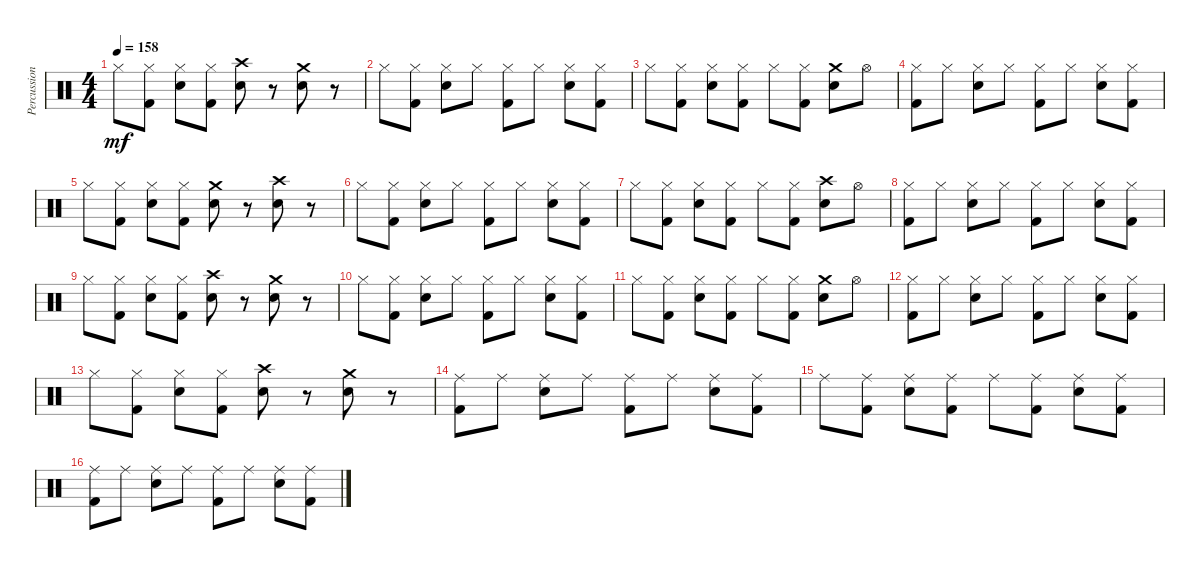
\track ("Percussions" "Percussion") {instrument percussion}
\staff {score}
\articulation defaults
\ts (4 4)
\tempo 158
\clef neutral
\ks c "Hi-Hat (closed)".8{dy mf}
("Hi-Hat (closed)" "Kick (hit) 2").8 ("Hi-Hat (closed)" "Electric Snare (hit)").8 ("Hi-Hat (closed)" "Kick (hit) 2").8 ("Crash high (hit)" "Electric Snare (hit)").8 r.8 ("Crash medium (hit)" "Electric Snare (hit)").8 r.8 |
"Hi-Hat (closed)".8 ("Hi-Hat (closed)" "Kick (hit) 2").8 ("Hi-Hat (closed)" "Electric Snare (hit)").8 "Hi-Hat (closed)".8 ("Hi-Hat (closed)" "Kick (hit) 2").8 "Hi-Hat (closed)".8 ("Hi-Hat (closed)" "Electric Snare (hit)").8 ("Hi-Hat (closed)" "Kick (hit) 2").8 |
"Hi-Hat (closed)".8 ("Hi-Hat (closed)" "Kick (hit) 2").8 ("Hi-Hat (closed)" "Electric Snare (hit)").8 ("Hi-Hat (closed)" "Kick (hit) 2").8 "Hi-Hat (closed)".8 ("Hi-Hat (closed)" "Kick (hit) 2").8 ("Crash medium (hit)" "Electric Snare (hit)").8 "Hi-Hat (open)".8 |
("Hi-Hat (closed)" "Kick (hit) 2").8 "Hi-Hat (closed)".8 ("Hi-Hat (closed)" "Electric Snare (hit)").8 "Hi-Hat (closed)".8 ("Hi-Hat (closed)" "Kick (hit) 2").8 "Hi-Hat (closed)".8 ("Hi-Hat (closed)" "Electric Snare (hit)").8 ("Hi-Hat (closed)" "Kick (hit) 2").8 |
"Hi-Hat (closed)".8 ("Hi-Hat (closed)" "Kick (hit) 2").8 ("Hi-Hat (closed)" "Electric Snare (hit)").8 ("Hi-Hat (closed)" "Kick (hit) 2").8 ("Crash medium (hit)" "Electric Snare (hit)").8 r.8 ("Crash high (hit)" "Electric Snare (hit)").8 r.8 |
"Hi-Hat (closed)".8 ("Hi-Hat (closed)" "Kick (hit) 2").8 ("Hi-Hat (closed)" "Electric Snare (hit)").8 "Hi-Hat (closed)".8 ("Hi-Hat (closed)" "Kick (hit) 2").8 "Hi-Hat (closed)".8 ("Hi-Hat (closed)" "Electric Snare (hit)").8 ("Hi-Hat (closed)" "Kick (hit) 2").8 |
"Hi-Hat (closed)".8 ("Hi-Hat (closed)" "Kick (hit) 2").8 ("Hi-Hat (closed)" "Electric Snare (hit)").8 ("Hi-Hat (closed)" "Kick (hit) 2").8 "Hi-Hat (closed)".8 ("Hi-Hat (closed)" "Kick (hit) 2").8 ("Crash high (hit)" "Electric Snare (hit)").8 "Hi-Hat (open)".8 |
("Hi-Hat (closed)" "Kick (hit) 2").8 "Hi-Hat (closed)".8 ("Hi-Hat (closed)" "Electric Snare (hit)").8 "Hi-Hat (closed)".8 ("Hi-Hat (closed)" "Kick (hit) 2").8 "Hi-Hat (closed)".8 ("Hi-Hat (closed)" "Electric Snare (hit)").8 ("Hi-Hat (closed)" "Kick (hit) 2").8 |
"Hi-Hat (closed)".8 ("Hi-Hat (closed)" "Kick (hit) 2").8 ("Hi-Hat (closed)" "Electric Snare (hit)").8 ("Hi-Hat (closed)" "Kick (hit) 2").8 ("Crash high (hit)" "Electric Snare (hit)").8 r.8 ("Crash medium (hit)" "Electric Snare (hit)").8 r.8 |
"Hi-Hat (closed)".8 ("Hi-Hat (closed)" "Kick (hit) 2").8 ("Hi-Hat (closed)" "Electric Snare (hit)").8 "Hi-Hat (closed)".8 ("Hi-Hat (closed)" "Kick (hit) 2").8 "Hi-Hat (closed)".8 ("Hi-Hat (closed)" "Electric Snare (hit)").8 ("Hi-Hat (closed)" "Kick (hit) 2").8 |
"Hi-Hat (closed)".8 ("Hi-Hat (closed)" "Kick (hit) 2").8 ("Hi-Hat (closed)" "Electric Snare (hit)").8 ("Hi-Hat (closed)" "Kick (hit) 2").8 "Hi-Hat (closed)".8 ("Hi-Hat (closed)" "Kick (hit) 2").8 ("Crash medium (hit)" "Electric Snare (hit)").8 "Hi-Hat (open)".8 |
("Hi-Hat (closed)" "Kick (hit) 2").8 "Hi-Hat (closed)".8 ("Hi-Hat (closed)" "Electric Snare (hit)").8 "Hi-Hat (closed)".8 ("Hi-Hat (closed)" "Kick (hit) 2").8 "Hi-Hat (closed)".8 ("Hi-Hat (closed)" "Electric Snare (hit)").8 ("Hi-Hat (closed)" "Kick (hit) 2").8 |
"Hi-Hat (closed)".8 ("Hi-Hat (closed)" "Kick (hit) 2").8 ("Hi-Hat (closed)" "Electric Snare (hit)").8 ("Hi-Hat (closed)" "Kick (hit) 2").8 ("Crash high (hit)" "Electric Snare (hit)").8 r.8 ("Crash medium (hit)" "Electric Snare (hit)").8 r.8 |
("Ride (middle)" "Kick (hit) 2").8 "Ride (middle)".8 ("Ride (middle)" "Electric Snare (hit)").8 "Ride (middle)".8 ("Ride (middle)" "Kick (hit) 2").8 "Ride (middle)".8 ("Ride (middle)" "Electric Snare (hit)").8 ("Ride (middle)" "Kick (hit) 2").8 |
"Ride (middle)".8 ("Ride (middle)" "Kick (hit) 2").8 ("Ride (middle)" "Electric Snare (hit)").8 ("Ride (middle)" "Kick (hit) 2").8 "Ride (middle)".8 ("Ride (middle)" "Kick (hit) 2").8 ("Ride (middle)" "Electric Snare (hit)").8 ("Ride (middle)" "Kick (hit) 2").8 |
("Ride (middle)" "Kick (hit) 2").8 "Ride (middle)".8 ("Ride (middle)" "Electric Snare (hit)").8 "Ride (middle)".8 ("Ride (middle)" "Kick (hit) 2").8 "Ride (middle)".8 ("Ride (middle)" "Electric Snare (hit)").8 ("Ride (middle)" "Kick (hit) 2").8
